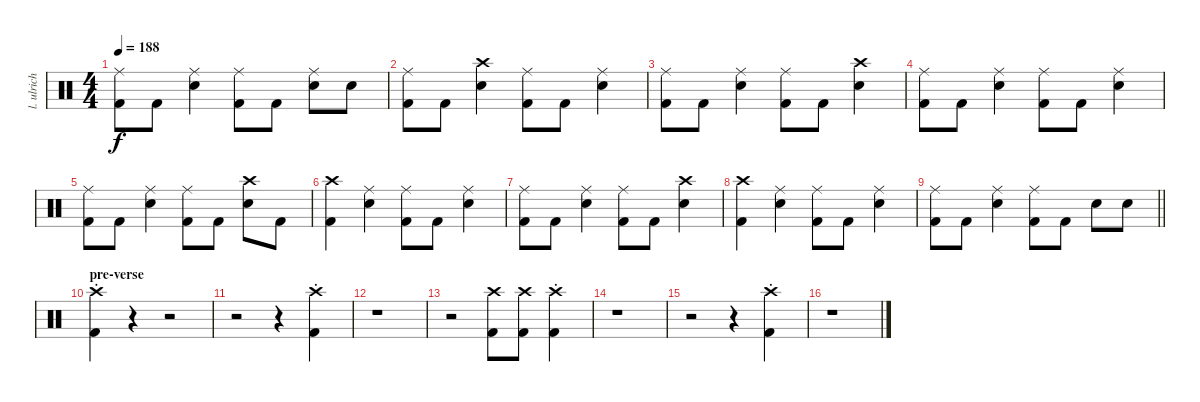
\track ("l. ulrich - drums" "l. ulrich ") {instrument percussion}
\staff {score}
\articulation defaults
\ts (4 4)
\tempo 188
\clef neutral
\ks c
("Ride (middle)" "Kick (hit) 2").8{dy f} "Kick (hit) 2".8 ("Ride (middle)" "Snare (hit) 2").4 ("Ride (middle)" "Kick (hit) 2").8 "Kick (hit) 2".8 ("Ride (middle)" "Snare (hit) 2").8 "Snare (hit) 2".8 |
("Ride (middle)" "Kick (hit) 2").8 "Kick (hit) 2".8 ("Crash high (hit)" "Snare (hit) 2").4 ("Ride (middle)" "Kick (hit) 2").8 "Kick (hit) 2".8 ("Ride (middle)" "Snare (hit) 2").4 |
("Ride (middle)" "Kick (hit) 2").8 "Kick (hit) 2".8 ("Ride (middle)" "Snare (hit) 2").4 ("Ride (middle)" "Kick (hit) 2").8 "Kick (hit) 2".8 ("Crash high (hit)" "Snare (hit) 2").4 |
("Ride (middle)" "Kick (hit) 2").8 "Kick (hit) 2".8 ("Ride (middle)" "Snare (hit) 2").4 ("Ride (middle)" "Kick (hit) 2").8 "Kick (hit) 2".8 ("Ride (middle)" "Snare (hit) 2").4 |
("Ride (middle)" "Kick (hit) 2").8 "Kick (hit) 2".8 ("Ride (middle)" "Snare (hit) 2").4 ("Ride (middle)" "Kick (hit) 2").8 "Kick (hit) 2".8 ("Crash high (hit)" "Snare (hit) 2").8 "Kick (hit) 2".8 |
("Crash high (hit)" "Kick (hit) 2").4 ("Ride (middle)" "Snare (hit) 2").4 ("Ride (middle)" "Kick (hit) 2").8 "Kick (hit) 2".8 ("Ride (middle)" "Snare (hit) 2").4 |
("Ride (middle)" "Kick (hit) 2").8 "Kick (hit) 2".8 ("Ride (middle)" "Snare (hit) 2").4 ("Ride (middle)" "Kick (hit) 2").8 "Kick (hit) 2".8 ("Crash high (hit)" "Snare (hit) 2").4 |
("Crash high (hit)" "Kick (hit) 2").4 ("Ride (middle)" "Snare (hit) 2").4 ("Ride (middle)" "Kick (hit) 2").8 "Kick (hit) 2".8 ("Ride (middle)" "Snare (hit) 2").4 |
\barLineRight lightlight
("Ride (middle)" "Kick (hit) 2").8 "Kick (hit) 2".8 ("Ride (middle)" "Snare (hit) 2").4 ("Ride (middle)" "Kick (hit) 2").8 "Kick (hit) 2".8 "Snare (hit) 2".8 "Snare (hit) 2".8 |
\section ("" "pre-verse")
("Crash high (hit)"{st} "Kick (hit) 2"{st}).4 r.4 r.2 |
r.2 r.4 ("Crash high (hit)"{st} "Kick (hit) 2"{st}).4 |
r.1 |
r.2 ("Crash high (hit)" "Kick (hit) 2").8 ("Crash high (hit)" "Kick (hit) 2").8 ("Crash high (hit)"{st} "Kick (hit) 2"{st}).4 |
r.1 |
r.2 r.4 ("Crash high (hit)"{st} "Kick (hit) 2"{st}).4 |
r.1
